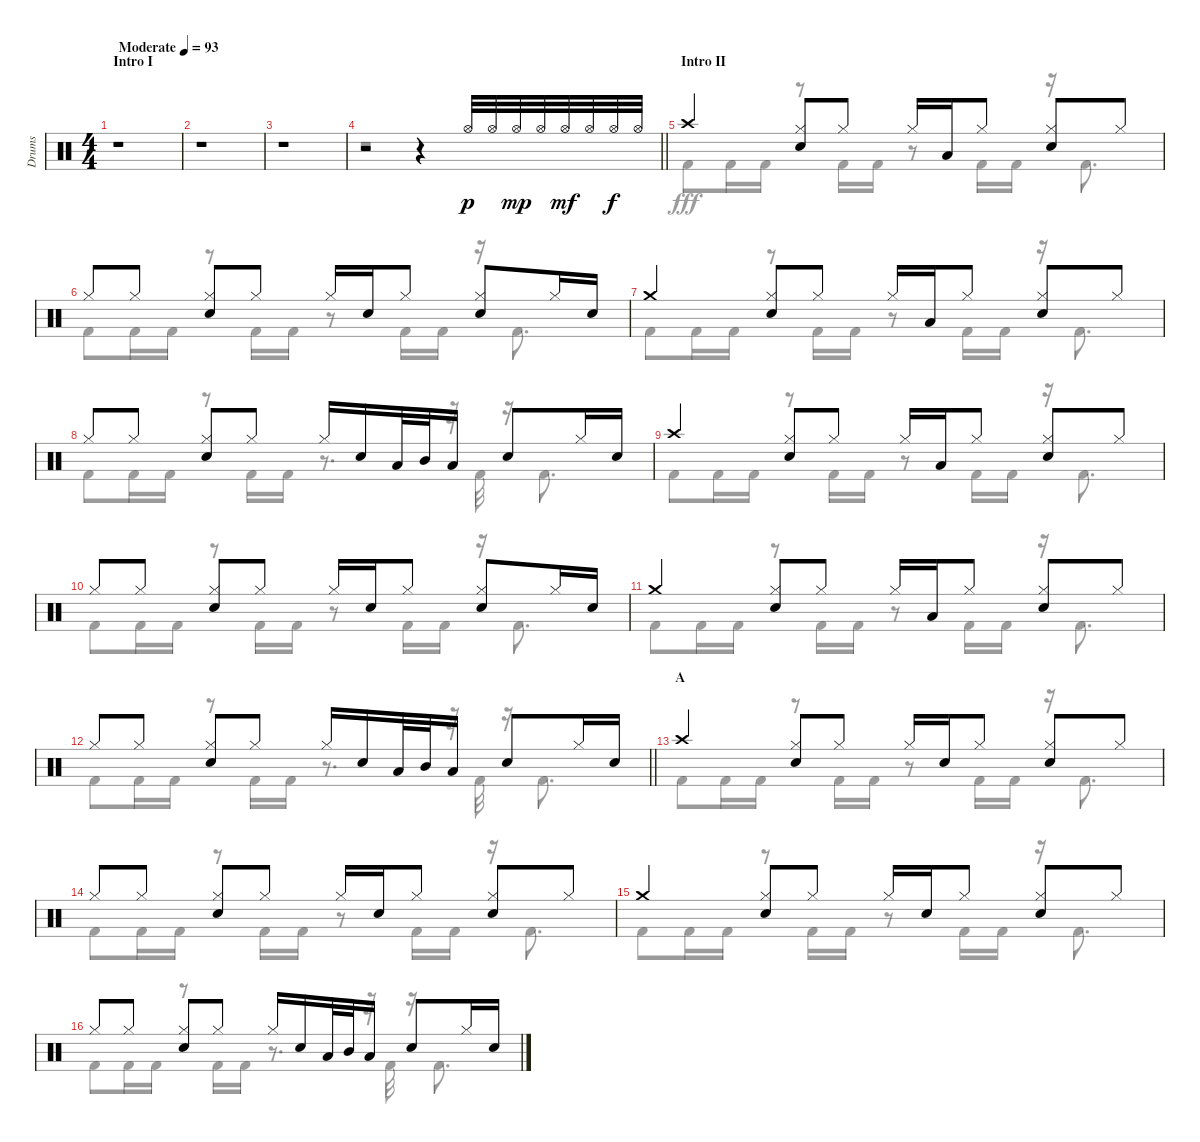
\track ("Drums" "Drums") {instrument percussion}
\staff {score}
\articulation defaults
\voice
\ts (4 4)
\section ("" "Intro I")
\tempo (93 "Moderate")
\clef neutral
\ks c
r.1{dy p} |
r.1 |
r.1 |
\barLineRight lightlight
r.2 r.4 "Hi-Hat (open)".32 "Hi-Hat (open)".32 "Hi-Hat (open)".32{dy mp} "Hi-Hat (open)".32 "Hi-Hat (open)".32{dy mf} "Hi-Hat (open)".32 "Hi-Hat (open)".32{dy f} "Hi-Hat (open)".32 |
\section ("" "Intro II")
"Crash high (hit)".4 ("Hi-Hat (closed)" "Snare (hit) 2").8 "Hi-Hat (closed)".8 "Hi-Hat (closed)".16 "Low Tom (hit)".16 "Hi-Hat (closed)".8 ("Hi-Hat (closed)" "Snare (hit) 2").8 "Hi-Hat (closed)".8 |
"Hi-Hat (closed)".8 "Hi-Hat (closed)".8 ("Hi-Hat (closed)" "Snare (hit) 2").8 "Hi-Hat (closed)".8 "Hi-Hat (closed)".16 "Snare (hit) 2".16 "Hi-Hat (closed)".8 ("Hi-Hat (closed)" "Snare (hit) 2").8 "Hi-Hat (closed)".16 "Snare (hit) 2".16 |
"Crash medium (hit)".4 ("Hi-Hat (closed)" "Snare (hit) 2").8 "Hi-Hat (closed)".8 "Hi-Hat (closed)".16 "Low Tom (hit)".16 "Hi-Hat (closed)".8 ("Hi-Hat (closed)" "Snare (hit) 2").8 "Hi-Hat (closed)".8 |
"Hi-Hat (closed)".8 "Hi-Hat (closed)".8 ("Hi-Hat (closed)" "Snare (hit) 2").8 "Hi-Hat (closed)".8 "Hi-Hat (closed)".16 "Snare (hit) 2".16 "Low Tom (hit)".32 "Mid Tom (hit)".32 "Low Tom (hit)".16 "Snare (hit) 2".8 "Hi-Hat (closed)".16 "Snare (hit) 2".16 |
"Crash high (hit)".4 ("Hi-Hat (closed)" "Snare (hit) 2").8 "Hi-Hat (closed)".8 "Hi-Hat (closed)".16 "Low Tom (hit)".16 "Hi-Hat (closed)".8 ("Hi-Hat (closed)" "Snare (hit) 2").8 "Hi-Hat (closed)".8 |
"Hi-Hat (closed)".8 "Hi-Hat (closed)".8 ("Hi-Hat (closed)" "Snare (hit) 2").8 "Hi-Hat (closed)".8 "Hi-Hat (closed)".16 "Snare (hit) 2".16 "Hi-Hat (closed)".8 ("Hi-Hat (closed)" "Snare (hit) 2").8 "Hi-Hat (closed)".16 "Snare (hit) 2".16 |
"Crash medium (hit)".4 ("Hi-Hat (closed)" "Snare (hit) 2").8 "Hi-Hat (closed)".8 "Hi-Hat (closed)".16 "Low Tom (hit)".16 "Hi-Hat (closed)".8 ("Hi-Hat (closed)" "Snare (hit) 2").8 "Hi-Hat (closed)".8 |
\barLineRight lightlight "Hi-Hat (closed)".8 "Hi-Hat (closed)".8
("Hi-Hat (closed)" "Snare (hit) 2").8 "Hi-Hat (closed)".8 "Hi-Hat (closed)".16 "Snare (hit) 2".16 "Low Tom (hit)".32 "Mid Tom (hit)".32 "Low Tom (hit)".16 "Snare (hit) 2".8 "Hi-Hat (closed)".16 "Snare (hit) 2".16 |
\section ("" "A")
"Crash high (hit)".4 ("Hi-Hat (closed)" "Snare (hit) 2").8 "Hi-Hat (closed)".8 "Hi-Hat (closed)".16 "Snare (hit) 2".16 "Hi-Hat (closed)".8 ("Hi-Hat (closed)" "Snare (hit) 2").8 "Hi-Hat (closed)".8 |
"Hi-Hat (closed)".8 "Hi-Hat (closed)".8 ("Hi-Hat (closed)" "Snare (hit) 2").8 "Hi-Hat (closed)".8 "Hi-Hat (closed)".16 "Snare (hit) 2".16 "Hi-Hat (closed)".8 ("Hi-Hat (closed)" "Snare (hit) 2").8 "Hi-Hat (closed)".8 |
"Crash medium (hit)".4 ("Hi-Hat (closed)" "Snare (hit) 2").8 "Hi-Hat (closed)".8 "Hi-Hat (closed)".16 "Snare (hit) 2".16 "Hi-Hat (closed)".8 ("Hi-Hat (closed)" "Snare (hit) 2").8 "Hi-Hat (closed)".8 |
"Hi-Hat (closed)".8 "Hi-Hat (closed)".8 ("Hi-Hat (closed)" "Snare (hit) 2").8 "Hi-Hat (closed)".8 "Hi-Hat (closed)".16 "Snare (hit) 2".16 "Low Tom (hit)".32 "Mid Tom (hit)".32 "Low Tom (hit)".16 "Snare (hit) 2".8 "Hi-Hat (closed)".16 "Snare (hit) 2".16
\voice
\clef neutral
\ottava regular
\simile none
\ks c
r.1{dy fff} |
r.1 |
r.1 |
\barLineRight lightlight
r.1 |
"Kick (hit) 2".8 "Kick (hit) 2".16 "Kick (hit) 2".16 r.8 "Kick (hit) 2".16 "Kick (hit) 2".16 r.8 "Kick (hit) 2".16 "Kick (hit) 2".16 r.16 "Kick (hit) 2".8{d} |
"Kick (hit) 2".8 "Kick (hit) 2".16 "Kick (hit) 2".16 r.8 "Kick (hit) 2".16 "Kick (hit) 2".16 r.8 "Kick (hit) 2".16 "Kick (hit) 2".16 r.16 "Kick (hit) 2".8{d} |
"Kick (hit) 2".8 "Kick (hit) 2".16 "Kick (hit) 2".16 r.8 "Kick (hit) 2".16 "Kick (hit) 2".16 r.8 "Kick (hit) 2".16 "Kick (hit) 2".16 r.16 "Kick (hit) 2".8{d} |
"Kick (hit) 2".8 "Kick (hit) 2".16 "Kick (hit) 2".16 r.8 "Kick (hit) 2".16 "Kick (hit) 2".16 r.8{d} r.32 "Kick (hit) 2".32 r.16 "Kick (hit) 2".8{d} |
"Kick (hit) 2".8 "Kick (hit) 2".16 "Kick (hit) 2".16 r.8 "Kick (hit) 2".16 "Kick (hit) 2".16 r.8 "Kick (hit) 2".16 "Kick (hit) 2".16 r.16 "Kick (hit) 2".8{d} |
"Kick (hit) 2".8 "Kick (hit) 2".16 "Kick (hit) 2".16 r.8 "Kick (hit) 2".16 "Kick (hit) 2".16 r.8 "Kick (hit) 2".16 "Kick (hit) 2".16 r.16 "Kick (hit) 2".8{d} |
"Kick (hit) 2".8 "Kick (hit) 2".16 "Kick (hit) 2".16 r.8 "Kick (hit) 2".16 "Kick (hit) 2".16 r.8 "Kick (hit) 2".16 "Kick (hit) 2".16 r.16 "Kick (hit) 2".8{d} |
\barLineRight lightlight "Kick (hit) 2".8 "Kick (hit) 2".16 "Kick (hit) 2".16
r.8 "Kick (hit) 2".16 "Kick (hit) 2".16 r.8{d} r.32 "Kick (hit) 2".32 r.16 "Kick (hit) 2".8{d} |
"Kick (hit) 2".8 "Kick (hit) 2".16 "Kick (hit) 2".16 r.8 "Kick (hit) 2".16 "Kick (hit) 2".16 r.8 "Kick (hit) 2".16 "Kick (hit) 2".16 r.16 "Kick (hit) 2".8{d} |
"Kick (hit) 2".8 "Kick (hit) 2".16 "Kick (hit) 2".16 r.8 "Kick (hit) 2".16 "Kick (hit) 2".16 r.8 "Kick (hit) 2".16 "Kick (hit) 2".16 r.16 "Kick (hit) 2".8{d} |
"Kick (hit) 2".8 "Kick (hit) 2".16 "Kick (hit) 2".16 r.8 "Kick (hit) 2".16 "Kick (hit) 2".16 r.8 "Kick (hit) 2".16 "Kick (hit) 2".16 r.16 "Kick (hit) 2".8{d} |
"Kick (hit) 2".8 "Kick (hit) 2".16 "Kick (hit) 2".16 r.8 "Kick (hit) 2".16 "Kick (hit) 2".16 r.8{d} r.32 "Kick (hit) 2".32 r.16 "Kick (hit) 2".8{d}
